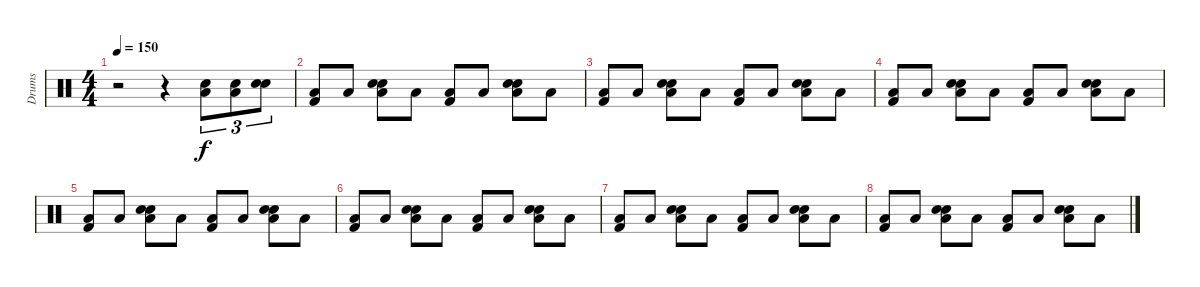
\track ("Drums" "Drums") {instrument percussion}
\staff {score}
\articulation defaults
\ts (4 4)
\tempo 150
\clef neutral
\ks c
r.2{dy f} r.4 ("Low Floor Tom (hit)" "Electric Snare (hit)").8{tu (3 2)} ("Low Floor Tom (hit)" "Electric Snare (hit)").8{tu (3 2)} ("Snare (hit) 2" "Electric Snare (hit)").8{tu (3 2)} |
("Low Floor Tom (hit)" "Kick (hit) 2").8 "Low Floor Tom (hit)".8 ("Low Floor Tom (hit)" "Electric Snare (hit)" "Snare (hit) 2").8 "Low Floor Tom (hit)".8 ("Low Floor Tom (hit)" "Kick (hit) 2").8 "Low Floor Tom (hit)".8 ("Low Floor Tom (hit)" "Electric Snare (hit)" "Snare (hit) 2").8 "Low Floor Tom (hit)".8 |
("Low Floor Tom (hit)" "Kick (hit) 2").8 "Low Floor Tom (hit)".8 ("Low Floor Tom (hit)" "Electric Snare (hit)" "Snare (hit) 2").8 "Low Floor Tom (hit)".8 ("Low Floor Tom (hit)" "Kick (hit) 2").8 "Low Floor Tom (hit)".8 ("Low Floor Tom (hit)" "Electric Snare (hit)" "Snare (hit) 2").8 "Low Floor Tom (hit)".8 |
("Low Floor Tom (hit)" "Kick (hit) 2").8 "Low Floor Tom (hit)".8 ("Low Floor Tom (hit)" "Electric Snare (hit)" "Snare (hit) 2").8 "Low Floor Tom (hit)".8 ("Low Floor Tom (hit)" "Kick (hit) 2").8 "Low Floor Tom (hit)".8 ("Low Floor Tom (hit)" "Electric Snare (hit)" "Snare (hit) 2").8 "Low Floor Tom (hit)".8 |
("Low Floor Tom (hit)" "Kick (hit) 2").8 "Low Floor Tom (hit)".8 ("Low Floor Tom (hit)" "Electric Snare (hit)" "Snare (hit) 2").8 "Low Floor Tom (hit)".8 ("Low Floor Tom (hit)" "Kick (hit) 2").8 "Low Floor Tom (hit)".8 ("Low Floor Tom (hit)" "Electric Snare (hit)" "Snare (hit) 2").8 "Low Floor Tom (hit)".8 |
("Low Floor Tom (hit)" "Kick (hit) 2").8 "Low Floor Tom (hit)".8 ("Low Floor Tom (hit)" "Electric Snare (hit)" "Snare (hit) 2").8 "Low Floor Tom (hit)".8 ("Low Floor Tom (hit)" "Kick (hit) 2").8 "Low Floor Tom (hit)".8 ("Low Floor Tom (hit)" "Electric Snare (hit)" "Snare (hit) 2").8 "Low Floor Tom (hit)".8 |
("Low Floor Tom (hit)" "Kick (hit) 2").8 "Low Floor Tom (hit)".8 ("Low Floor Tom (hit)" "Electric Snare (hit)" "Snare (hit) 2").8 "Low Floor Tom (hit)".8 ("Low Floor Tom (hit)" "Kick (hit) 2").8 "Low Floor Tom (hit)".8 ("Low Floor Tom (hit)" "Electric Snare (hit)" "Snare (hit) 2").8 "Low Floor Tom (hit)".8 |
("Low Floor Tom (hit)" "Kick (hit) 2").8 "Low Floor Tom (hit)".8 ("Low Floor Tom (hit)" "Electric Snare (hit)" "Snare (hit) 2").8 "Low Floor Tom (hit)".8 ("Low Floor Tom (hit)" "Kick (hit) 2").8 "Low Floor Tom (hit)".8 ("Low Floor Tom (hit)" "Electric Snare (hit)" "Snare (hit) 2").8 "Low Floor Tom (hit)".8
